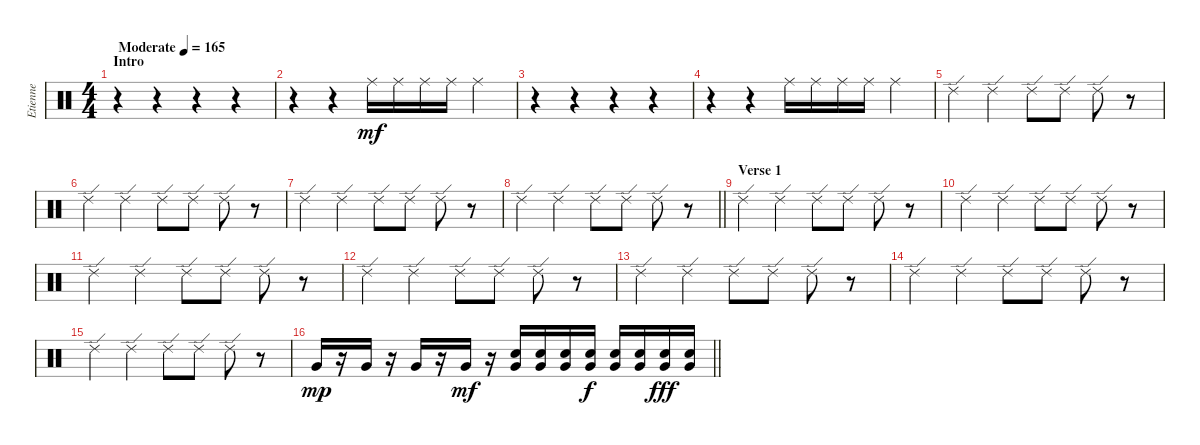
\track ("Etienne" "Etienne") {instrument percussion}
\staff {score}
\articulation defaults
\ts (4 4)
\section ("" "Intro")
\tempo (165 "Moderate")
\clef neutral
\ks c
r.4{dy mf} r.4 r.4 r.4 |
r.4 r.4 "Ride (middle)".16 "Ride (middle)".16 "Ride (middle)".16 "Ride (middle)".16 "Ride (middle)".4 |
r.4 r.4 r.4 r.4 |
r.4 r.4 "Ride (middle)".16 "Ride (middle)".16 "Ride (middle)".16 "Ride (middle)".16 "Ride (middle)".4 |
"Ride (edge) 2".4 "Ride (edge) 2".4 "Ride (edge) 2".8 "Ride (edge) 2".8 "Ride (edge) 2".8 r.8 |
"Ride (edge) 2".4 "Ride (edge) 2".4 "Ride (edge) 2".8 "Ride (edge) 2".8 "Ride (edge) 2".8 r.8 |
"Ride (edge) 2".4 "Ride (edge) 2".4 "Ride (edge) 2".8 "Ride (edge) 2".8 "Ride (edge) 2".8 r.8 |
\barLineRight lightlight "Ride (edge) 2".4 "Ride (edge) 2".4 "Ride (edge) 2".8 "Ride (edge) 2".8 "Ride (edge) 2".8
r.8 |
\section ("" "Verse 1")
"Ride (edge) 2".4 "Ride (edge) 2".4 "Ride (edge) 2".8 "Ride (edge) 2".8 "Ride (edge) 2".8 r.8 |
"Ride (edge) 2".4 "Ride (edge) 2".4 "Ride (edge) 2".8 "Ride (edge) 2".8 "Ride (edge) 2".8 r.8 |
"Ride (edge) 2".4 "Ride (edge) 2".4 "Ride (edge) 2".8 "Ride (edge) 2".8 "Ride (edge) 2".8 r.8 |
"Ride (edge) 2".4 "Ride (edge) 2".4 "Ride (edge) 2".8 "Ride (edge) 2".8 "Ride (edge) 2".8 r.8 |
"Ride (edge) 2".4 "Ride (edge) 2".4 "Ride (edge) 2".8 "Ride (edge) 2".8 "Ride (edge) 2".8 r.8 |
"Ride (edge) 2".4 "Ride (edge) 2".4 "Ride (edge) 2".8 "Ride (edge) 2".8 "Ride (edge) 2".8 r.8 |
"Ride (edge) 2".4 "Ride (edge) 2".4 "Ride (edge) 2".8 "Ride (edge) 2".8 "Ride (edge) 2".8 r.8 |
\barLineRight lightlight "Very Low Tom (hit)".16{dy mp}
r.16 "Very Low Tom (hit)".16 r.16 "Very Low Tom (hit)".16 r.16 "Very Low Tom (hit)".16{dy mf} r.16 ("Very Low Tom (hit)" "Electric Snare (hit)").16 ("Very Low Tom (hit)" "Electric Snare (hit)").16 ("Very Low Tom (hit)" "Electric Snare (hit)").16 ("Very Low Tom (hit)" "Electric Snare (hit)").16{dy f} ("Very Low Tom (hit)" "Electric Snare (hit)").16 ("Very Low Tom (hit)" "Electric Snare (hit)").16 ("Very Low Tom (hit)" "Electric Snare (hit)").16{dy fff} ("Very Low Tom (hit)" "Electric Snare (hit)").16
